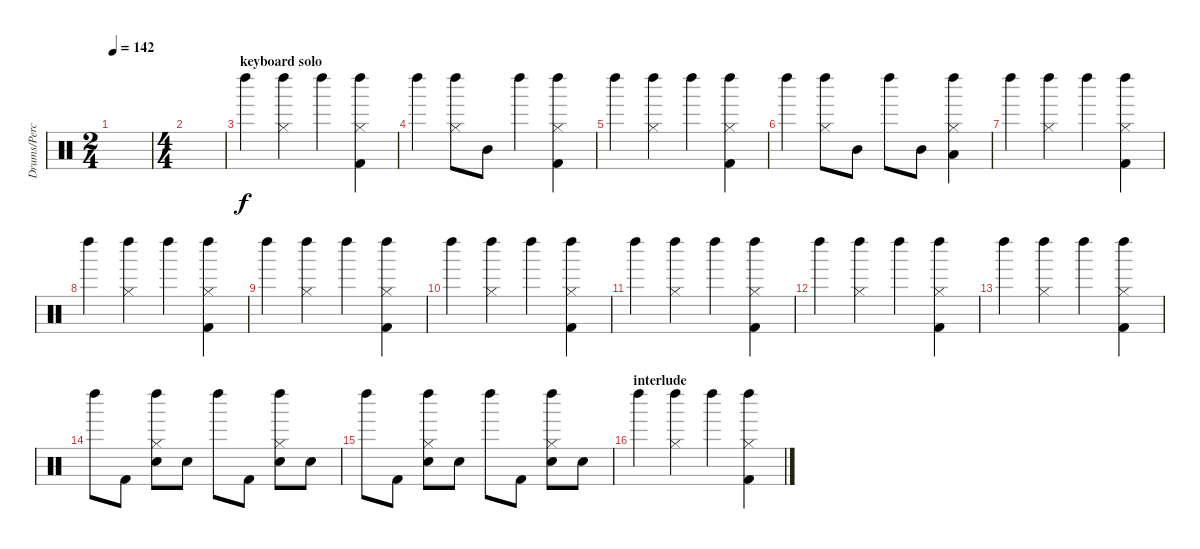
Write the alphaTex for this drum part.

\track ("Drums/Percussion (Bengerg)" "Drums/Perc") {instrument percussion}
\staff {score}
\articulation defaults
\ts (2 4)
\tempo 142
\clef neutral
\ks c
|
\ts (4 4)
|
\section ("" "keyboard solo")
"Left Maraca (hit)".4 ("Hi-Hat (closed)" "Left Maraca (hit)").4 "Left Maraca (hit)".4 ("Hi-Hat (closed)" "Kick (hit) 2" "Left Maraca (hit)").4 |
"Left Maraca (hit)".4 ("Hi-Hat (closed)" "Left Maraca (hit)").8 "Mid Tom (hit)".8 "Left Maraca (hit)".4 ("Hi-Hat (closed)" "Kick (hit) 2" "Left Maraca (hit)").4 |
"Left Maraca (hit)".4 ("Hi-Hat (closed)" "Left Maraca (hit)").4 "Left Maraca (hit)".4 ("Hi-Hat (closed)" "Kick (hit) 2" "Left Maraca (hit)").4 |
"Left Maraca (hit)".4 ("Hi-Hat (closed)" "Left Maraca (hit)").8 "Mid Tom (hit)".8 "Left Maraca (hit)".8 "Mid Tom (hit)".8 ("Hi-Hat (closed)" "Low Tom (hit)" "Left Maraca (hit)").4 |
"Left Maraca (hit)".4 ("Hi-Hat (closed)" "Left Maraca (hit)").4 "Left Maraca (hit)".4 ("Hi-Hat (closed)" "Kick (hit) 2" "Left Maraca (hit)").4 |
"Left Maraca (hit)".4 ("Hi-Hat (closed)" "Left Maraca (hit)").4 "Left Maraca (hit)".4 ("Hi-Hat (closed)" "Kick (hit) 2" "Left Maraca (hit)").4 |
"Left Maraca (hit)".4 ("Hi-Hat (closed)" "Left Maraca (hit)").4 "Left Maraca (hit)".4 ("Hi-Hat (closed)" "Kick (hit) 2" "Left Maraca (hit)").4 |
"Left Maraca (hit)".4 ("Hi-Hat (closed)" "Left Maraca (hit)").4 "Left Maraca (hit)".4 ("Hi-Hat (closed)" "Kick (hit) 2" "Left Maraca (hit)").4 |
"Left Maraca (hit)".4 ("Hi-Hat (closed)" "Left Maraca (hit)").4 "Left Maraca (hit)".4 ("Hi-Hat (closed)" "Kick (hit) 2" "Left Maraca (hit)").4 |
"Left Maraca (hit)".4 ("Hi-Hat (closed)" "Left Maraca (hit)").4 "Left Maraca (hit)".4 ("Hi-Hat (closed)" "Kick (hit) 2" "Left Maraca (hit)").4 |
"Left Maraca (hit)".4 ("Hi-Hat (closed)" "Left Maraca (hit)").4 "Left Maraca (hit)".4 ("Hi-Hat (closed)" "Kick (hit) 2" "Left Maraca (hit)").4 |
"Left Maraca (hit)".8 "Kick (hit) 2".8 ("Hi-Hat (closed)" "Electric Snare (hit)" "Left Maraca (hit)").8 "Electric Snare (hit)".8 "Left Maraca (hit)".8 "Kick (hit) 2".8 ("Hi-Hat (closed)" "Electric Snare (hit)" "Left Maraca (hit)").8 "Electric Snare (hit)".8 |
"Left Maraca (hit)".8 "Kick (hit) 2".8 ("Hi-Hat (closed)" "Electric Snare (hit)" "Left Maraca (hit)").8 "Electric Snare (hit)".8 "Left Maraca (hit)".8 "Kick (hit) 2".8 ("Hi-Hat (closed)" "Electric Snare (hit)" "Left Maraca (hit)").8 "Electric Snare (hit)".8 |
\section ("" "interlude")
"Left Maraca (hit)".4 ("Hi-Hat (closed)" "Left Maraca (hit)").4 "Left Maraca (hit)".4 ("Hi-Hat (closed)" "Kick (hit) 2" "Left Maraca (hit)").4
